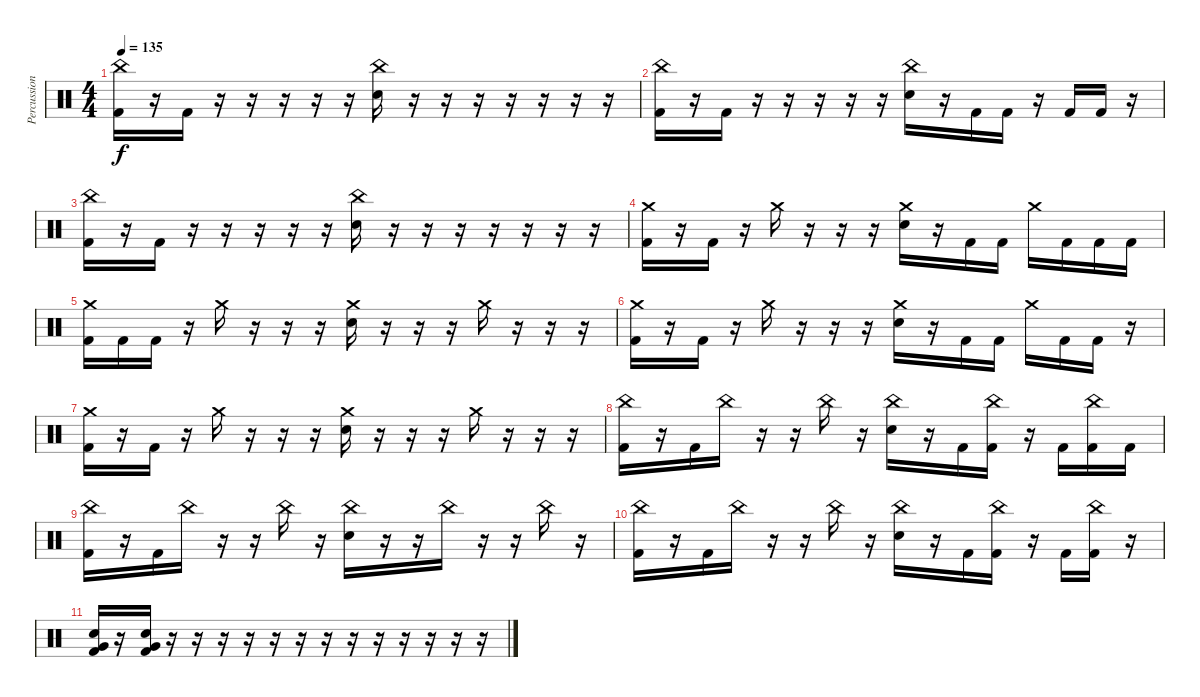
\track ("Percussion" "Percussion") {instrument percussion}
\staff {score}
\articulation defaults
\ts (4 4)
\tempo 135
\clef neutral
\ks c
("China (hit)" "Kick (hit) 2").16{dy f} r.16 "Kick (hit) 2".16 r.16 r.16 r.16 r.16 r.16 ("China (hit)" "Electric Snare (hit)").16 r.16 r.16 r.16 r.16 r.16 r.16 r.16 |
("China (hit)" "Kick (hit) 2").16 r.16 "Kick (hit) 2".16 r.16 r.16 r.16 r.16 r.16 ("China (hit)" "Electric Snare (hit)").16 r.16 "Kick (hit) 2".16 "Kick (hit) 2".16 r.16 "Kick (hit) 2".16 "Kick (hit) 2".16 r.16 |
("China (hit)" "Kick (hit) 2").16 r.16 "Kick (hit) 2".16 r.16 r.16 r.16 r.16 r.16 ("China (hit)" "Electric Snare (hit)").16 r.16 r.16 r.16 r.16 r.16 r.16 r.16 |
("Crash medium (hit)" "Kick (hit) 2").16 r.16 "Kick (hit) 2".16 r.16 "Crash medium (hit)".16 r.16 r.16 r.16 ("Crash medium (hit)" "Electric Snare (hit)").16 r.16 "Kick (hit) 2".16 "Kick (hit) 2".16 "Crash medium (hit)".16 "Kick (hit) 2".16 "Kick (hit) 2".16 "Kick (hit) 2".16 |
("Crash medium (hit)" "Kick (hit) 2").16 "Kick (hit) 2".16 "Kick (hit) 2".16 r.16 "Crash medium (hit)".16 r.16 r.16 r.16 ("Crash medium (hit)" "Electric Snare (hit)").16 r.16 r.16 r.16 "Crash medium (hit)".16 r.16 r.16 r.16 |
("Crash medium (hit)" "Kick (hit) 2").16 r.16 "Kick (hit) 2".16 r.16 "Crash medium (hit)".16 r.16 r.16 r.16 ("Crash medium (hit)" "Electric Snare (hit)").16 r.16 "Kick (hit) 2".16 "Kick (hit) 2".16 "Crash medium (hit)".16 "Kick (hit) 2".16 "Kick (hit) 2".16 r.16 |
("Crash medium (hit)" "Kick (hit) 2").16 r.16 "Kick (hit) 2".16 r.16 "Crash medium (hit)".16 r.16 r.16 r.16 ("Crash medium (hit)" "Electric Snare (hit)").16 r.16 r.16 r.16 "Crash medium (hit)".16 r.16 r.16 r.16 |
("China (hit)" "Kick (hit) 2").16 r.16 "Kick (hit) 2".16 "China (hit)".16 r.16 r.16 "China (hit)".16 r.16 ("China (hit)" "Electric Snare (hit)").16 r.16 "Kick (hit) 2".16 ("China (hit)" "Kick (hit) 2").16 r.16 "Kick (hit) 2".16 ("China (hit)" "Kick (hit) 2").16 "Kick (hit) 2".16 |
("China (hit)" "Kick (hit) 2").16 r.16 "Kick (hit) 2".16 "China (hit)".16 r.16 r.16 "China (hit)".16 r.16 ("China (hit)" "Electric Snare (hit)").16 r.16 r.16 "China (hit)".16 r.16 r.16 "China (hit)".16 r.16 |
("China (hit)" "Kick (hit) 2").16 r.16 "Kick (hit) 2".16 "China (hit)".16 r.16 r.16 "China (hit)".16 r.16 ("China (hit)" "Electric Snare (hit)").16 r.16 "Kick (hit) 2".16 ("China (hit)" "Kick (hit) 2").16 r.16 "Kick (hit) 2".16 ("China (hit)" "Kick (hit) 2").16 r.16 |
("Very Low Tom (hit)" "Electric Snare (hit)" "Kick (hit) 2").16 r.16 ("Very Low Tom (hit)" "Electric Snare (hit)" "Kick (hit) 2").16 r.16 r.16 r.16 r.16 r.16 r.16 r.16 r.16 r.16 r.16 r.16 r.16 r.16
